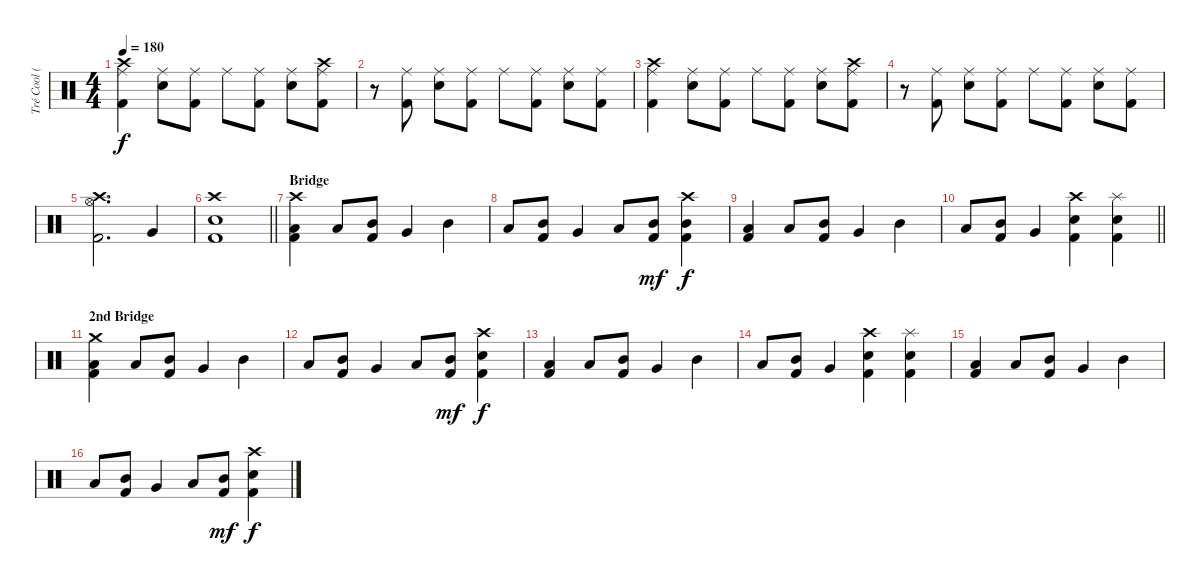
\track ("Tré Cool (Drums)" "Tré Cool (") {instrument percussion}
\staff {score}
\articulation defaults
\ts (4 4)
\tempo 180
\clef neutral
\ks c
("Crash high (hit)" "Ride (middle)" "Kick (hit) 2").4{dy f} ("Ride (middle)" "Electric Snare (hit)").8 ("Ride (middle)" "Kick (hit) 2").8 "Ride (middle)".8 ("Ride (middle)" "Kick (hit) 2").8 ("Ride (middle)" "Electric Snare (hit)").8 ("Crash high (hit)" "Ride (middle)" "Kick (hit) 2").8 |
r.8 ("Ride (middle)" "Kick (hit) 2").8 ("Ride (middle)" "Electric Snare (hit)").8 ("Ride (middle)" "Kick (hit) 2").8 "Ride (middle)".8 ("Ride (middle)" "Kick (hit) 2").8 ("Ride (middle)" "Electric Snare (hit)").8 ("Ride (middle)" "Kick (hit) 2").8 |
("Crash high (hit)" "Ride (middle)" "Kick (hit) 2").4 ("Ride (middle)" "Electric Snare (hit)").8 ("Ride (middle)" "Kick (hit) 2").8 "Ride (middle)".8 ("Ride (middle)" "Kick (hit) 2").8 ("Ride (middle)" "Electric Snare (hit)").8 ("Crash high (hit)" "Ride (middle)" "Kick (hit) 2").8 |
r.8 ("Ride (middle)" "Kick (hit) 2").8 ("Ride (middle)" "Electric Snare (hit)").8 ("Ride (middle)" "Kick (hit) 2").8 "Ride (middle)".8 ("Ride (middle)" "Kick (hit) 2").8 ("Ride (middle)" "Electric Snare (hit)").8 ("Ride (middle)" "Kick (hit) 2").8 |
("Crash high (hit)" "Hi-Hat (open)" "Kick (hit) 2").2{d} "Very Low Tom (hit)".4 |
\barLineRight lightlight
("Crash high (hit)" "Electric Snare (hit)" "Kick (hit) 2").1 |
\section ("" "Bridge")
("Crash high (hit)" "Low Tom (hit)" "Kick (hit) 2").4 "Low Tom (hit)".8 ("Mid Tom (hit)" "Kick (hit) 2").8 "Very Low Tom (hit)".4 "Mid Tom (hit)".4 |
"Low Tom (hit)".8 ("Mid Tom (hit)" "Kick (hit) 2").8 "Very Low Tom (hit)".4 "Low Tom (hit)".8 ("Mid Tom (hit)" "Kick (hit) 2").8{dy mf} ("Crash high (hit)" "Mid Tom (hit)" "Kick (hit) 2").4{dy f} |
("Low Tom (hit)" "Kick (hit) 2").4 "Low Tom (hit)".8 ("Mid Tom (hit)" "Kick (hit) 2").8 "Very Low Tom (hit)".4 "Mid Tom (hit)".4 |
\barLineRight lightlight "Low Tom (hit)".8
("Mid Tom (hit)" "Kick (hit) 2").8 "Very Low Tom (hit)".4 ("Crash high (hit)" "Electric Snare (hit)" "Kick (hit) 2").4 ("Splash (hit)" "Electric Snare (hit)" "Kick (hit) 2").4 |
\section ("" "2nd Bridge")
("Crash medium (hit)" "Low Tom (hit)" "Kick (hit) 2").4 "Low Tom (hit)".8 ("Mid Tom (hit)" "Kick (hit) 2").8 "Very Low Tom (hit)".4 "Mid Tom (hit)".4 |
"Low Tom (hit)".8 ("Mid Tom (hit)" "Kick (hit) 2").8 "Very Low Tom (hit)".4 "Low Tom (hit)".8 ("Mid Tom (hit)" "Kick (hit) 2").8{dy mf} ("Crash high (hit)" "Electric Snare (hit)" "Kick (hit) 2").4{dy f} |
("Low Tom (hit)" "Kick (hit) 2").4 "Low Tom (hit)".8 ("Mid Tom (hit)" "Kick (hit) 2").8 "Very Low Tom (hit)".4 "Mid Tom (hit)".4 |
"Low Tom (hit)".8 ("Mid Tom (hit)" "Kick (hit) 2").8 "Very Low Tom (hit)".4 ("Crash high (hit)" "Electric Snare (hit)" "Kick (hit) 2").4 ("Splash (hit)" "Electric Snare (hit)" "Kick (hit) 2").4 |
("Low Tom (hit)" "Kick (hit) 2").4 "Low Tom (hit)".8 ("Mid Tom (hit)" "Kick (hit) 2").8 "Very Low Tom (hit)".4 "Mid Tom (hit)".4 |
"Low Tom (hit)".8 ("Mid Tom (hit)" "Kick (hit) 2").8 "Very Low Tom (hit)".4 "Low Tom (hit)".8 ("Mid Tom (hit)" "Kick (hit) 2").8{dy mf} ("Crash high (hit)" "Electric Snare (hit)" "Kick (hit) 2").4{dy f}
